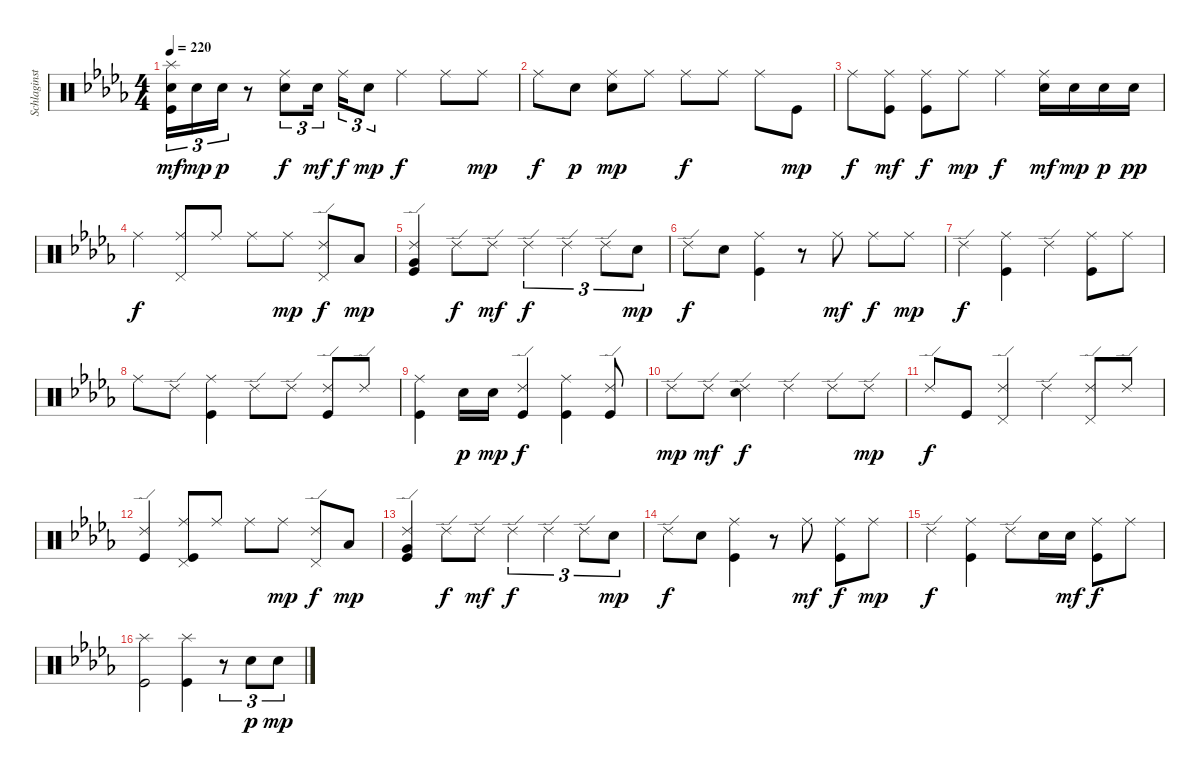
\track ("Schlaginstrumente - Auswahl" "Schlaginst") {instrument percussion}
\staff {score}
\articulation defaults
\ts (4 4)
\tempo 220
\clef neutral
\ks bbminor
("Splash (hit)" "Snare (hit) 2" "Kick (hit)").16{tu (3 2) dy mf} "Snare (hit) 2".16{tu (3 2) dy mp} "Snare (hit) 2".16{tu (3 2) dy p} r.8 ("Ride (middle)" "Snare (hit) 2").8{tu (3 2) dy f} "Snare (hit) 2".16{tu (3 2) dy mf beam splitsecondary} "Ride (middle)".16{tu (3 2) dy f} "Snare (hit) 2".8{tu (3 2) dy mp} "Ride (middle)".4{dy f} "Ride (middle)".8 "Ride (middle)".8{dy mp} |
"Ride (middle)".8{dy f} "Snare (hit) 2".8{dy p} ("Ride (middle)" "Snare (hit) 2").8{dy mp} "Ride (middle)".8 "Ride (middle)".8{dy f} "Ride (middle)".8 "Ride (middle)".8 "Kick (hit)".8{dy mp} |
"Ride (middle)".8{dy f} ("Ride (middle)" "Kick (hit)").8{dy mf} ("Ride (middle)" "Kick (hit)").8{dy f} "Ride (middle)".8{dy mp} "Ride (middle)".4{dy f} ("Ride (middle)" "Snare (hit) 2").16{dy mf} "Snare (hit) 2".16{dy mp} "Snare (hit) 2".16{dy p} "Snare (hit) 2".16{dy pp} |
"Ride (middle)".4{dy f} ("Ride (middle)" "Pedal Hi-Hat (hit)").8 "Ride (middle)".8 "Ride (middle)".8 "Ride (middle)".8{dy mp} ("Ride (edge) 2" "Pedal Hi-Hat (hit)").8{dy f} "Low Tom (hit)".8{dy mp} |
("Ride (edge) 2" "Very Low Tom (hit)" "Kick (hit)").4 "Ride (edge) 2".8{dy f} "Ride (edge) 2".8{dy mf} "Ride (edge) 2".4{tu (3 2) dy f} "Ride (edge) 2".4{tu (3 2)} "Ride (edge) 2".8{tu (3 2)} "Snare (hit) 2".8{tu (3 2) dy mp} |
"Ride (edge) 2".8{dy f} "Snare (hit) 2".8 ("Ride (middle)" "Kick (hit)").4 r.8 "Ride (middle)".8{dy mf} "Ride (middle)".8{dy f} "Ride (middle)".8{dy mp} |
"Ride (edge) 2".4{dy f} ("Ride (middle)" "Kick (hit)").4 "Ride (edge) 2".4 ("Ride (middle)" "Kick (hit)").8 "Ride (middle)".8 |
"Ride (middle)".8 "Ride (edge) 2".8 ("Ride (middle)" "Kick (hit)").4 "Ride (edge) 2".8 "Ride (edge) 2".8 ("Ride (edge) 2" "Kick (hit)").8 "Ride (edge) 2".8 |
("Ride (middle)" "Kick (hit)").4 "Snare (hit) 2".16{dy p} "Snare (hit) 2".16{dy mp} ("Ride (edge) 2" "Kick (hit)").4{dy f} ("Ride (middle)" "Kick (hit)").4 ("Ride (edge) 2" "Kick (hit)").8 |
"Ride (edge) 2".8{dy mp} "Ride (edge) 2".8{dy mf} ("Ride (edge) 2" "Snare (hit) 2").4{dy f} "Ride (edge) 2".4 "Ride (edge) 2".8 "Ride (edge) 2".8{dy mp} |
"Ride (edge) 2".8{dy f} "Kick (hit)".8 ("Ride (edge) 2" "Pedal Hi-Hat (hit)").4 "Ride (edge) 2".4 ("Ride (edge) 2" "Pedal Hi-Hat (hit)").8 "Ride (edge) 2".8 |
("Ride (edge) 2" "Kick (hit)").4 ("Ride (middle)" "Pedal Hi-Hat (hit)" "Kick (hit)").8 "Ride (middle)".8 "Ride (middle)".8 "Ride (middle)".8{dy mp} ("Ride (edge) 2" "Pedal Hi-Hat (hit)").8{dy f} "Low Tom (hit)".8{dy mp} |
("Ride (edge) 2" "Very Low Tom (hit)" "Kick (hit)").4 "Ride (edge) 2".8{dy f} "Ride (edge) 2".8{dy mf} "Ride (edge) 2".4{tu (3 2) dy f} "Ride (edge) 2".4{tu (3 2)} "Ride (edge) 2".8{tu (3 2)} "Snare (hit) 2".8{tu (3 2) dy mp} |
"Ride (edge) 2".8{dy f} "Snare (hit) 2".8 ("Ride (middle)" "Kick (hit)").4 r.8 "Ride (middle)".8{dy mf} ("Ride (middle)" "Kick (hit)").8{dy f} "Ride (middle)".8{dy mp} |
"Ride (edge) 2".4{dy f} ("Ride (middle)" "Kick (hit)").4 "Ride (edge) 2".8 "Snare (hit) 2".16 "Snare (hit) 2".16{dy mf} ("Ride (middle)" "Kick (hit)").8{dy f} "Ride (middle)".8 |
("Splash (hit)" "Kick (hit)").2 ("Splash (hit)" "Kick (hit)").4 r.8{tu (3 2)} "Snare (hit) 2".8{tu (3 2) dy p} "Snare (hit) 2".8{tu (3 2) dy mp}
